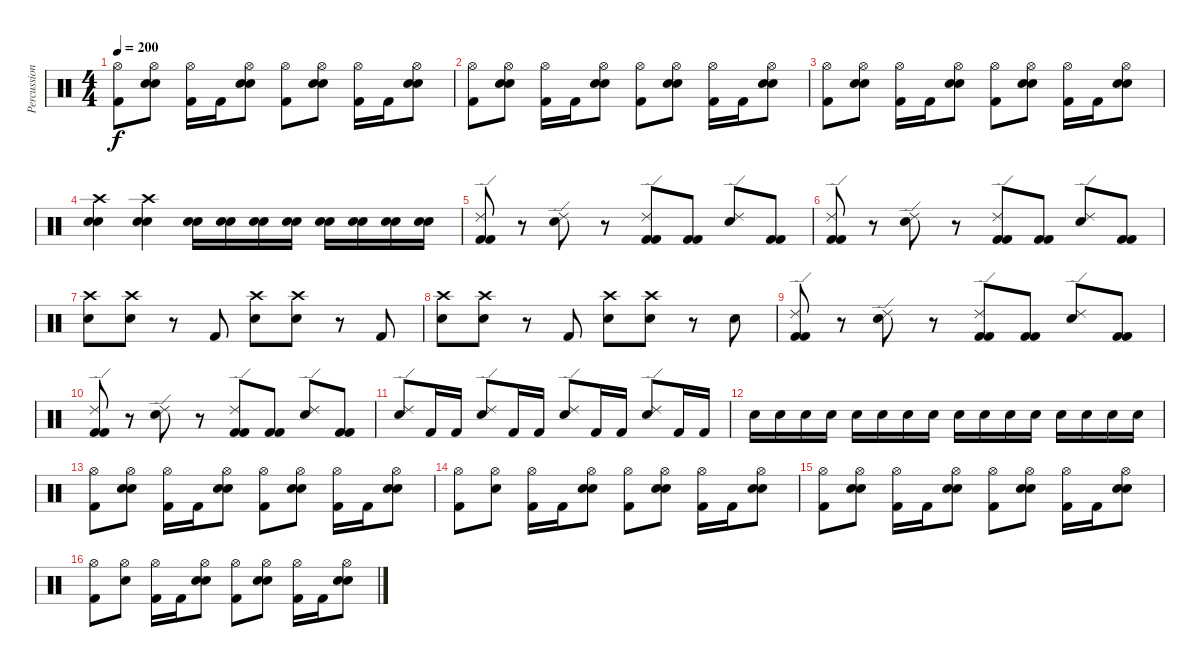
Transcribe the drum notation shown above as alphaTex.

\track ("Percussion" "Percussion") {instrument percussion}
\staff {score}
\articulation defaults
\ts (4 4)
\tempo 200
\clef neutral
\ks c
("Hi-Hat (open)" "Kick (hit) 2").8{dy f} ("Hi-Hat (open)" "Electric Snare (hit)" "Electric Snare (hit)").8 ("Hi-Hat (open)" "Kick (hit) 2").16 "Kick (hit) 2".16 ("Hi-Hat (open)" "Electric Snare (hit)" "Electric Snare (hit)").8 ("Hi-Hat (open)" "Kick (hit) 2").8 ("Hi-Hat (open)" "Electric Snare (hit)" "Electric Snare (hit)").8 ("Hi-Hat (open)" "Kick (hit) 2").16 "Kick (hit) 2".16 ("Hi-Hat (open)" "Electric Snare (hit)" "Electric Snare (hit)").8 |
("Hi-Hat (open)" "Kick (hit) 2").8 ("Hi-Hat (open)" "Electric Snare (hit)" "Electric Snare (hit)").8 ("Hi-Hat (open)" "Kick (hit) 2").16 "Kick (hit) 2".16 ("Hi-Hat (open)" "Electric Snare (hit)" "Electric Snare (hit)").8 ("Hi-Hat (open)" "Kick (hit) 2").8 ("Hi-Hat (open)" "Electric Snare (hit)" "Electric Snare (hit)").8 ("Hi-Hat (open)" "Kick (hit) 2").16 "Kick (hit) 2".16 ("Hi-Hat (open)" "Electric Snare (hit)" "Electric Snare (hit)").8 |
("Hi-Hat (open)" "Kick (hit) 2").8 ("Hi-Hat (open)" "Electric Snare (hit)" "Electric Snare (hit)").8 ("Hi-Hat (open)" "Kick (hit) 2").16 "Kick (hit) 2".16 ("Hi-Hat (open)" "Electric Snare (hit)" "Electric Snare (hit)").8 ("Hi-Hat (open)" "Kick (hit) 2").8 ("Hi-Hat (open)" "Electric Snare (hit)" "Electric Snare (hit)").8 ("Hi-Hat (open)" "Kick (hit) 2").16 "Kick (hit) 2".16 ("Hi-Hat (open)" "Electric Snare (hit)" "Electric Snare (hit)").8 |
("Crash high (hit)" "Electric Snare (hit)" "Electric Snare (hit)").4 ("Crash high (hit)" "Electric Snare (hit)" "Electric Snare (hit)").4 ("Electric Snare (hit)" "Electric Snare (hit)").16 ("Electric Snare (hit)" "Electric Snare (hit)").16 ("Electric Snare (hit)" "Electric Snare (hit)").16 ("Electric Snare (hit)" "Electric Snare (hit)").16 ("Electric Snare (hit)" "Electric Snare (hit)").16 ("Electric Snare (hit)" "Electric Snare (hit)").16 ("Electric Snare (hit)" "Electric Snare (hit)").16 ("Electric Snare (hit)" "Electric Snare (hit)").16 |
("Ride (edge) 2" "Kick (hit) 2" "Kick (hit) 2").8 r.8 ("Ride (edge) 2" "Electric Snare (hit)").8 r.8 ("Ride (edge) 2" "Kick (hit) 2" "Kick (hit) 2").8 ("Kick (hit) 2" "Kick (hit) 2").8 ("Ride (edge) 2" "Electric Snare (hit)").8 ("Kick (hit) 2" "Kick (hit) 2").8 |
("Ride (edge) 2" "Kick (hit) 2" "Kick (hit) 2").8 r.8 ("Ride (edge) 2" "Electric Snare (hit)").8 r.8 ("Ride (edge) 2" "Kick (hit) 2" "Kick (hit) 2").8 ("Kick (hit) 2" "Kick (hit) 2").8 ("Ride (edge) 2" "Electric Snare (hit)").8 ("Kick (hit) 2" "Kick (hit) 2").8 |
("Crash high (hit)" "Electric Snare (hit)").8 ("Crash high (hit)" "Electric Snare (hit)").8 r.8 "Kick (hit) 2".8 ("Crash high (hit)" "Electric Snare (hit)").8 ("Crash high (hit)" "Electric Snare (hit)").8 r.8 "Kick (hit) 2".8 |
("Crash high (hit)" "Electric Snare (hit)").8 ("Crash high (hit)" "Electric Snare (hit)").8 r.8 "Kick (hit) 2".8 ("Crash high (hit)" "Electric Snare (hit)").8 ("Crash high (hit)" "Electric Snare (hit)").8 r.8 "Electric Snare (hit)".8 |
("Ride (edge) 2" "Kick (hit) 2" "Kick (hit) 2").8 r.8 ("Ride (edge) 2" "Electric Snare (hit)").8 r.8 ("Ride (edge) 2" "Kick (hit) 2" "Kick (hit) 2").8 ("Kick (hit) 2" "Kick (hit) 2").8 ("Ride (edge) 2" "Electric Snare (hit)").8 ("Kick (hit) 2" "Kick (hit) 2").8 |
("Ride (edge) 2" "Kick (hit) 2" "Kick (hit) 2").8 r.8 ("Ride (edge) 2" "Electric Snare (hit)").8 r.8 ("Ride (edge) 2" "Kick (hit) 2" "Kick (hit) 2").8 ("Kick (hit) 2" "Kick (hit) 2").8 ("Ride (edge) 2" "Electric Snare (hit)").8 ("Kick (hit) 2" "Kick (hit) 2").8 |
("Ride (edge) 2" "Electric Snare (hit)").8 "Kick (hit) 2".16 "Kick (hit) 2".16 ("Ride (edge) 2" "Electric Snare (hit)").8 "Kick (hit) 2".16 "Kick (hit) 2".16 ("Ride (edge) 2" "Electric Snare (hit)").8 "Kick (hit) 2".16 "Kick (hit) 2".16 ("Ride (edge) 2" "Electric Snare (hit)").8 "Kick (hit) 2".16 "Kick (hit) 2".16 |
"Electric Snare (hit)".16 "Electric Snare (hit)".16 "Electric Snare (hit)".16 "Electric Snare (hit)".16 "Electric Snare (hit)".16 "Electric Snare (hit)".16 "Electric Snare (hit)".16 "Electric Snare (hit)".16 "Electric Snare (hit)".16 "Electric Snare (hit)".16 "Electric Snare (hit)".16 "Electric Snare (hit)".16 "Electric Snare (hit)".16 "Electric Snare (hit)".16 "Electric Snare (hit)".16 "Electric Snare (hit)".16 |
("Hi-Hat (open)" "Kick (hit) 2").8 ("Hi-Hat (open)" "Electric Snare (hit)" "Electric Snare (hit)").8 ("Hi-Hat (open)" "Kick (hit) 2").16 "Kick (hit) 2".16 ("Hi-Hat (open)" "Electric Snare (hit)" "Electric Snare (hit)").8 ("Hi-Hat (open)" "Kick (hit) 2").8 ("Hi-Hat (open)" "Electric Snare (hit)" "Electric Snare (hit)").8 ("Hi-Hat (open)" "Kick (hit) 2").16 "Kick (hit) 2".16 ("Hi-Hat (open)" "Electric Snare (hit)" "Electric Snare (hit)").8 |
("Hi-Hat (open)" "Kick (hit) 2").8 ("Hi-Hat (open)" "Electric Snare (hit)").8 ("Hi-Hat (open)" "Kick (hit) 2").16 "Kick (hit) 2".16 ("Hi-Hat (open)" "Electric Snare (hit)" "Electric Snare (hit)").8 ("Hi-Hat (open)" "Kick (hit) 2").8 ("Hi-Hat (open)" "Electric Snare (hit)" "Electric Snare (hit)").8 ("Hi-Hat (open)" "Kick (hit) 2").16 "Kick (hit) 2".16 ("Hi-Hat (open)" "Electric Snare (hit)" "Electric Snare (hit)").8 |
("Hi-Hat (open)" "Kick (hit) 2").8 ("Hi-Hat (open)" "Electric Snare (hit)" "Electric Snare (hit)").8 ("Hi-Hat (open)" "Kick (hit) 2").16 "Kick (hit) 2".16 ("Hi-Hat (open)" "Electric Snare (hit)" "Electric Snare (hit)").8 ("Hi-Hat (open)" "Kick (hit) 2").8 ("Hi-Hat (open)" "Electric Snare (hit)" "Electric Snare (hit)").8 ("Hi-Hat (open)" "Kick (hit) 2").16 "Kick (hit) 2".16 ("Hi-Hat (open)" "Electric Snare (hit)" "Electric Snare (hit)").8 |
("Hi-Hat (open)" "Kick (hit) 2").8 ("Hi-Hat (open)" "Electric Snare (hit)").8 ("Hi-Hat (open)" "Kick (hit) 2").16 "Kick (hit) 2".16 ("Hi-Hat (open)" "Electric Snare (hit)" "Electric Snare (hit)").8 ("Hi-Hat (open)" "Kick (hit) 2").8 ("Hi-Hat (open)" "Electric Snare (hit)" "Electric Snare (hit)").8 ("Hi-Hat (open)" "Kick (hit) 2").16 "Kick (hit) 2".16 ("Hi-Hat (open)" "Electric Snare (hit)" "Electric Snare (hit)").8
